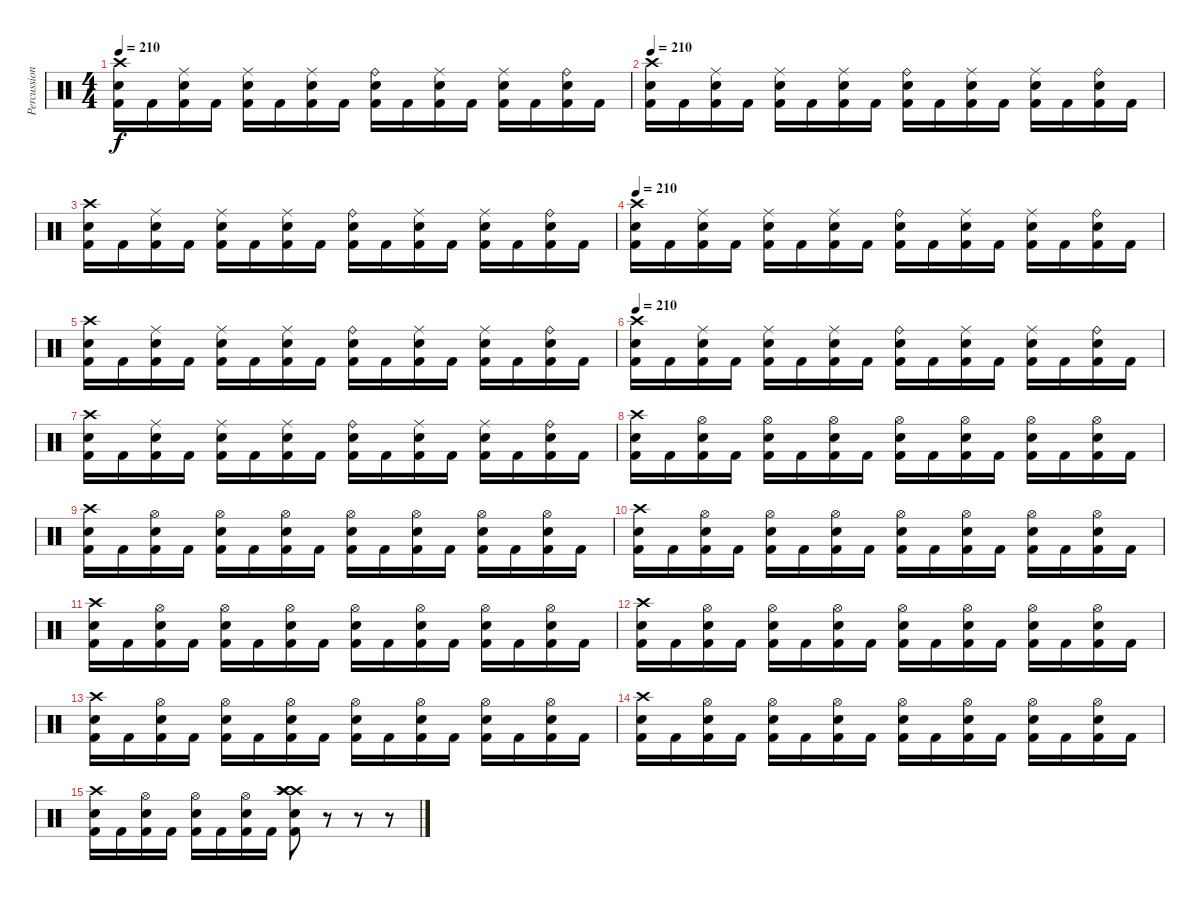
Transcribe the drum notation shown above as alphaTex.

\track ("Percussion" "Percussion") {instrument percussion}
\staff {score}
\articulation defaults
\ts (4 4)
\tempo 210
\clef neutral
\ks c
("Crash high (hit)" "Snare (hit) 2" "Kick (hit) 2").16{dy f} "Kick (hit) 2".16 ("Ride (middle)" "Snare (hit) 2" "Kick (hit) 2").16 "Kick (hit) 2".16 ("Ride (middle)" "Snare (hit) 2" "Kick (hit) 2").16 "Kick (hit) 2".16 ("Ride (middle)" "Snare (hit) 2" "Kick (hit) 2").16 "Kick (hit) 2".16 ("Ride (bell)" "Snare (hit) 2" "Kick (hit) 2").16 "Kick (hit) 2".16 ("Ride (middle)" "Snare (hit) 2" "Kick (hit) 2").16 "Kick (hit) 2".16 ("Ride (middle)" "Snare (hit) 2" "Kick (hit) 2").16 "Kick (hit) 2".16 ("Ride (bell)" "Snare (hit) 2" "Kick (hit) 2").16 "Kick (hit) 2".16 |
\tempo 210
("Crash high (hit)" "Snare (hit) 2" "Kick (hit) 2").16 "Kick (hit) 2".16 ("Ride (middle)" "Snare (hit) 2" "Kick (hit) 2").16 "Kick (hit) 2".16 ("Ride (middle)" "Snare (hit) 2" "Kick (hit) 2").16 "Kick (hit) 2".16 ("Ride (middle)" "Snare (hit) 2" "Kick (hit) 2").16 "Kick (hit) 2".16 ("Ride (bell)" "Snare (hit) 2" "Kick (hit) 2").16 "Kick (hit) 2".16 ("Ride (middle)" "Snare (hit) 2" "Kick (hit) 2").16 "Kick (hit) 2".16 ("Ride (middle)" "Snare (hit) 2" "Kick (hit) 2").16 "Kick (hit) 2".16 ("Ride (bell)" "Snare (hit) 2" "Kick (hit) 2").16 "Kick (hit) 2".16 |
("Crash high (hit)" "Snare (hit) 2" "Kick (hit) 2").16 "Kick (hit) 2".16 ("Ride (middle)" "Snare (hit) 2" "Kick (hit) 2").16 "Kick (hit) 2".16 ("Ride (middle)" "Snare (hit) 2" "Kick (hit) 2").16 "Kick (hit) 2".16 ("Ride (middle)" "Snare (hit) 2" "Kick (hit) 2").16 "Kick (hit) 2".16 ("Ride (bell)" "Snare (hit) 2" "Kick (hit) 2").16 "Kick (hit) 2".16 ("Ride (middle)" "Snare (hit) 2" "Kick (hit) 2").16 "Kick (hit) 2".16 ("Ride (middle)" "Snare (hit) 2" "Kick (hit) 2").16 "Kick (hit) 2".16 ("Ride (bell)" "Snare (hit) 2" "Kick (hit) 2").16 "Kick (hit) 2".16 |
\tempo 210
("Crash high (hit)" "Snare (hit) 2" "Kick (hit) 2").16 "Kick (hit) 2".16 ("Ride (middle)" "Snare (hit) 2" "Kick (hit) 2").16 "Kick (hit) 2".16 ("Ride (middle)" "Snare (hit) 2" "Kick (hit) 2").16 "Kick (hit) 2".16 ("Ride (middle)" "Snare (hit) 2" "Kick (hit) 2").16 "Kick (hit) 2".16 ("Ride (bell)" "Snare (hit) 2" "Kick (hit) 2").16 "Kick (hit) 2".16 ("Ride (middle)" "Snare (hit) 2" "Kick (hit) 2").16 "Kick (hit) 2".16 ("Ride (middle)" "Snare (hit) 2" "Kick (hit) 2").16 "Kick (hit) 2".16 ("Ride (bell)" "Snare (hit) 2" "Kick (hit) 2").16 "Kick (hit) 2".16 |
("Crash high (hit)" "Snare (hit) 2" "Kick (hit) 2").16 "Kick (hit) 2".16 ("Ride (middle)" "Snare (hit) 2" "Kick (hit) 2").16 "Kick (hit) 2".16 ("Ride (middle)" "Snare (hit) 2" "Kick (hit) 2").16 "Kick (hit) 2".16 ("Ride (middle)" "Snare (hit) 2" "Kick (hit) 2").16 "Kick (hit) 2".16 ("Ride (bell)" "Snare (hit) 2" "Kick (hit) 2").16 "Kick (hit) 2".16 ("Ride (middle)" "Snare (hit) 2" "Kick (hit) 2").16 "Kick (hit) 2".16 ("Ride (middle)" "Snare (hit) 2" "Kick (hit) 2").16 "Kick (hit) 2".16 ("Ride (bell)" "Snare (hit) 2" "Kick (hit) 2").16 "Kick (hit) 2".16 |
\tempo 210
("Crash high (hit)" "Snare (hit) 2" "Kick (hit) 2").16 "Kick (hit) 2".16 ("Ride (middle)" "Snare (hit) 2" "Kick (hit) 2").16 "Kick (hit) 2".16 ("Ride (middle)" "Snare (hit) 2" "Kick (hit) 2").16 "Kick (hit) 2".16 ("Ride (middle)" "Snare (hit) 2" "Kick (hit) 2").16 "Kick (hit) 2".16 ("Ride (bell)" "Snare (hit) 2" "Kick (hit) 2").16 "Kick (hit) 2".16 ("Ride (middle)" "Snare (hit) 2" "Kick (hit) 2").16 "Kick (hit) 2".16 ("Ride (middle)" "Snare (hit) 2" "Kick (hit) 2").16 "Kick (hit) 2".16 ("Ride (bell)" "Snare (hit) 2" "Kick (hit) 2").16 "Kick (hit) 2".16 |
("Crash high (hit)" "Snare (hit) 2" "Kick (hit) 2").16 "Kick (hit) 2".16 ("Ride (middle)" "Snare (hit) 2" "Kick (hit) 2").16 "Kick (hit) 2".16 ("Ride (middle)" "Snare (hit) 2" "Kick (hit) 2").16 "Kick (hit) 2".16 ("Ride (middle)" "Snare (hit) 2" "Kick (hit) 2").16 "Kick (hit) 2".16 ("Ride (bell)" "Snare (hit) 2" "Kick (hit) 2").16 "Kick (hit) 2".16 ("Ride (middle)" "Snare (hit) 2" "Kick (hit) 2").16 "Kick (hit) 2".16 ("Ride (middle)" "Snare (hit) 2" "Kick (hit) 2").16 "Kick (hit) 2".16 ("Ride (bell)" "Snare (hit) 2" "Kick (hit) 2").16 "Kick (hit) 2".16 |
("Crash high (hit)" "Snare (hit) 2" "Kick (hit) 2").16 "Kick (hit) 2".16 ("Hi-Hat (open)" "Snare (hit) 2" "Kick (hit) 2").16 "Kick (hit) 2".16 ("Hi-Hat (open)" "Snare (hit) 2" "Kick (hit) 2").16 "Kick (hit) 2".16 ("Hi-Hat (open)" "Snare (hit) 2" "Kick (hit) 2").16 "Kick (hit) 2".16 ("Hi-Hat (open)" "Snare (hit) 2" "Kick (hit) 2").16 "Kick (hit) 2".16 ("Hi-Hat (open)" "Snare (hit) 2" "Kick (hit) 2").16 "Kick (hit) 2".16 ("Hi-Hat (open)" "Snare (hit) 2" "Kick (hit) 2").16 "Kick (hit) 2".16 ("Hi-Hat (open)" "Snare (hit) 2" "Kick (hit) 2").16 "Kick (hit) 2".16 |
("Crash high (hit)" "Snare (hit) 2" "Kick (hit) 2").16 "Kick (hit) 2".16 ("Hi-Hat (open)" "Snare (hit) 2" "Kick (hit) 2").16 "Kick (hit) 2".16 ("Hi-Hat (open)" "Snare (hit) 2" "Kick (hit) 2").16 "Kick (hit) 2".16 ("Hi-Hat (open)" "Snare (hit) 2" "Kick (hit) 2").16 "Kick (hit) 2".16 ("Hi-Hat (open)" "Snare (hit) 2" "Kick (hit) 2").16 "Kick (hit) 2".16 ("Hi-Hat (open)" "Snare (hit) 2" "Kick (hit) 2").16 "Kick (hit) 2".16 ("Hi-Hat (open)" "Snare (hit) 2" "Kick (hit) 2").16 "Kick (hit) 2".16 ("Hi-Hat (open)" "Snare (hit) 2" "Kick (hit) 2").16 "Kick (hit) 2".16 |
("Crash high (hit)" "Snare (hit) 2" "Kick (hit) 2").16 "Kick (hit) 2".16 ("Hi-Hat (open)" "Snare (hit) 2" "Kick (hit) 2").16 "Kick (hit) 2".16 ("Hi-Hat (open)" "Snare (hit) 2" "Kick (hit) 2").16 "Kick (hit) 2".16 ("Hi-Hat (open)" "Snare (hit) 2" "Kick (hit) 2").16 "Kick (hit) 2".16 ("Hi-Hat (open)" "Snare (hit) 2" "Kick (hit) 2").16 "Kick (hit) 2".16 ("Hi-Hat (open)" "Snare (hit) 2" "Kick (hit) 2").16 "Kick (hit) 2".16 ("Hi-Hat (open)" "Snare (hit) 2" "Kick (hit) 2").16 "Kick (hit) 2".16 ("Hi-Hat (open)" "Snare (hit) 2" "Kick (hit) 2").16 "Kick (hit) 2".16 |
("Crash high (hit)" "Snare (hit) 2" "Kick (hit) 2").16 "Kick (hit) 2".16 ("Hi-Hat (open)" "Snare (hit) 2" "Kick (hit) 2").16 "Kick (hit) 2".16 ("Hi-Hat (open)" "Snare (hit) 2" "Kick (hit) 2").16 "Kick (hit) 2".16 ("Hi-Hat (open)" "Snare (hit) 2" "Kick (hit) 2").16 "Kick (hit) 2".16 ("Hi-Hat (open)" "Snare (hit) 2" "Kick (hit) 2").16 "Kick (hit) 2".16 ("Hi-Hat (open)" "Snare (hit) 2" "Kick (hit) 2").16 "Kick (hit) 2".16 ("Hi-Hat (open)" "Snare (hit) 2" "Kick (hit) 2").16 "Kick (hit) 2".16 ("Hi-Hat (open)" "Snare (hit) 2" "Kick (hit) 2").16 "Kick (hit) 2".16 |
("Crash high (hit)" "Snare (hit) 2" "Kick (hit) 2").16 "Kick (hit) 2".16 ("Hi-Hat (open)" "Snare (hit) 2" "Kick (hit) 2").16 "Kick (hit) 2".16 ("Hi-Hat (open)" "Snare (hit) 2" "Kick (hit) 2").16 "Kick (hit) 2".16 ("Hi-Hat (open)" "Snare (hit) 2" "Kick (hit) 2").16 "Kick (hit) 2".16 ("Hi-Hat (open)" "Snare (hit) 2" "Kick (hit) 2").16 "Kick (hit) 2".16 ("Hi-Hat (open)" "Snare (hit) 2" "Kick (hit) 2").16 "Kick (hit) 2".16 ("Hi-Hat (open)" "Snare (hit) 2" "Kick (hit) 2").16 "Kick (hit) 2".16 ("Hi-Hat (open)" "Snare (hit) 2" "Kick (hit) 2").16 "Kick (hit) 2".16 |
("Crash high (hit)" "Snare (hit) 2" "Kick (hit) 2").16 "Kick (hit) 2".16 ("Hi-Hat (open)" "Snare (hit) 2" "Kick (hit) 2").16 "Kick (hit) 2".16 ("Hi-Hat (open)" "Snare (hit) 2" "Kick (hit) 2").16 "Kick (hit) 2".16 ("Hi-Hat (open)" "Snare (hit) 2" "Kick (hit) 2").16 "Kick (hit) 2".16 ("Hi-Hat (open)" "Snare (hit) 2" "Kick (hit) 2").16 "Kick (hit) 2".16 ("Hi-Hat (open)" "Snare (hit) 2" "Kick (hit) 2").16 "Kick (hit) 2".16 ("Hi-Hat (open)" "Snare (hit) 2" "Kick (hit) 2").16 "Kick (hit) 2".16 ("Hi-Hat (open)" "Snare (hit) 2" "Kick (hit) 2").16 "Kick (hit) 2".16 |
("Crash high (hit)" "Snare (hit) 2" "Kick (hit) 2").16 "Kick (hit) 2".16 ("Hi-Hat (open)" "Snare (hit) 2" "Kick (hit) 2").16 "Kick (hit) 2".16 ("Hi-Hat (open)" "Snare (hit) 2" "Kick (hit) 2").16 "Kick (hit) 2".16 ("Hi-Hat (open)" "Snare (hit) 2" "Kick (hit) 2").16 "Kick (hit) 2".16 ("Hi-Hat (open)" "Snare (hit) 2" "Kick (hit) 2").16 "Kick (hit) 2".16 ("Hi-Hat (open)" "Snare (hit) 2" "Kick (hit) 2").16 "Kick (hit) 2".16 ("Hi-Hat (open)" "Snare (hit) 2" "Kick (hit) 2").16 "Kick (hit) 2".16 ("Hi-Hat (open)" "Snare (hit) 2" "Kick (hit) 2").16 "Kick (hit) 2".16 |
("Crash high (hit)" "Snare (hit) 2" "Kick (hit) 2").16 "Kick (hit) 2".16 ("Hi-Hat (open)" "Snare (hit) 2" "Kick (hit) 2").16 "Kick (hit) 2".16 ("Hi-Hat (open)" "Snare (hit) 2" "Kick (hit) 2").16 "Kick (hit) 2".16 ("Hi-Hat (open)" "Snare (hit) 2" "Kick (hit) 2").16 "Kick (hit) 2".16 ("Crash high (hit)" "Crash high (hit)" "Crash high (hit)" "Crash high (hit)" "Snare (hit) 2" "Kick (hit) 2").8 r.8 r.8 r.8
